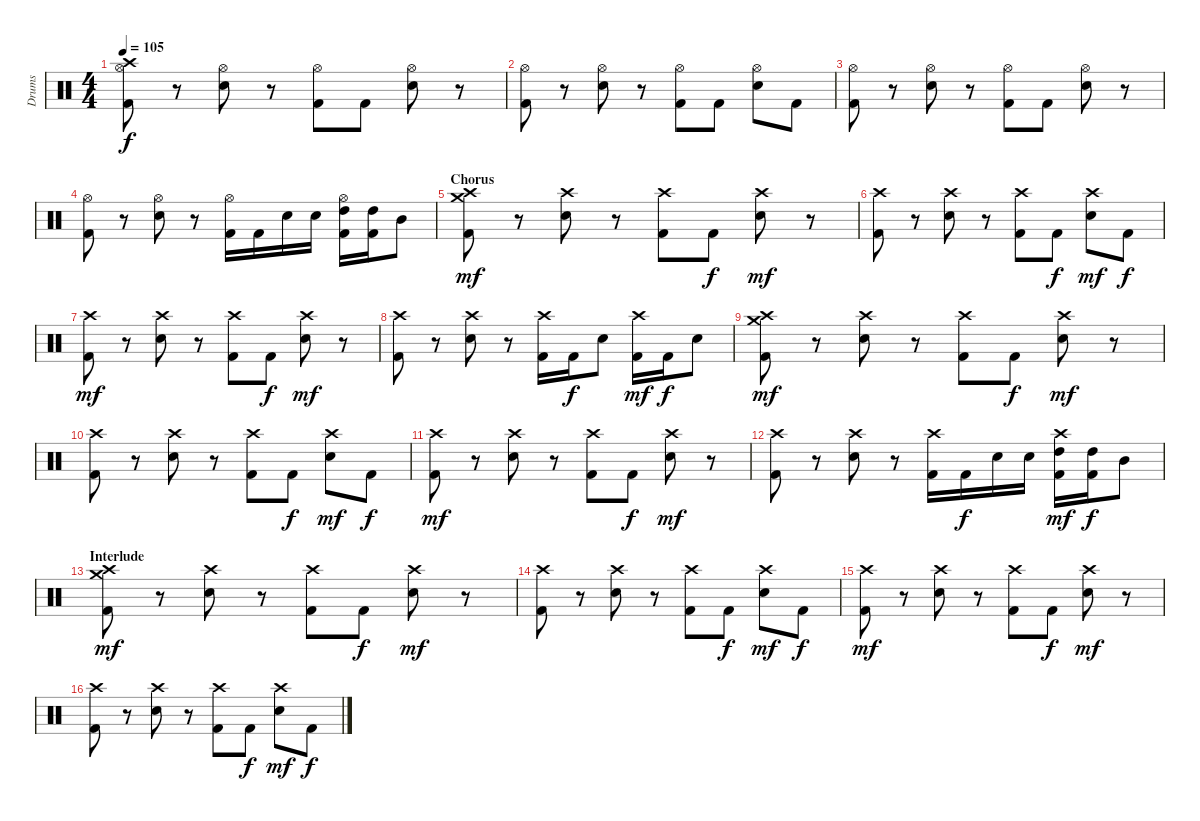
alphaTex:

\track ("Drums" "Drums") {instrument percussion}
\staff {score}
\articulation defaults
\ts (4 4)
\tempo 105
\clef neutral
\ks c
("Crash high (hit)" "Hi-Hat (open)" "Kick (hit) 2").8{dy f} r.8 ("Hi-Hat (open)" "Electric Snare (hit)").8 r.8 ("Hi-Hat (open)" "Kick (hit) 2").8 "Kick (hit) 2".8 ("Hi-Hat (open)" "Electric Snare (hit)").8 r.8 |
("Hi-Hat (open)" "Kick (hit) 2").8 r.8 ("Hi-Hat (open)" "Electric Snare (hit)").8 r.8 ("Hi-Hat (open)" "Kick (hit) 2").8 "Kick (hit) 2".8 ("Hi-Hat (open)" "Electric Snare (hit)").8 "Kick (hit) 2".8 |
("Hi-Hat (open)" "Kick (hit) 2").8 r.8 ("Hi-Hat (open)" "Electric Snare (hit)").8 r.8 ("Hi-Hat (open)" "Kick (hit) 2").8 "Kick (hit) 2".8 ("Hi-Hat (open)" "Electric Snare (hit)").8 r.8 |
("Hi-Hat (open)" "Kick (hit) 2").8 r.8 ("Hi-Hat (open)" "Electric Snare (hit)").8 r.8 ("Hi-Hat (open)" "Kick (hit) 2").16 "Kick (hit) 2".16 "Electric Snare (hit)".16 "Electric Snare (hit)".16 ("Hi-Hat (open)" "High Tom (hit)" "Kick (hit) 2").16 ("High Tom (hit)" "Kick (hit) 2").16 "Mid Tom (hit)".8 |
\section ("" "Chorus")
("Crash medium (hit)" "Crash high (hit)" "Kick (hit) 2").8{dy mf} r.8 ("Crash high (hit)" "Electric Snare (hit)").8 r.8 ("Crash high (hit)" "Kick (hit) 2").8 "Kick (hit) 2".8{dy f} ("Crash high (hit)" "Electric Snare (hit)").8{dy mf} r.8 |
("Crash high (hit)" "Kick (hit) 2").8 r.8 ("Crash high (hit)" "Electric Snare (hit)").8 r.8 ("Crash high (hit)" "Kick (hit) 2").8 "Kick (hit) 2".8{dy f} ("Crash high (hit)" "Electric Snare (hit)").8{dy mf} "Kick (hit) 2".8{dy f} |
("Crash high (hit)" "Kick (hit) 2").8{dy mf} r.8 ("Crash high (hit)" "Electric Snare (hit)").8 r.8 ("Crash high (hit)" "Kick (hit) 2").8 "Kick (hit) 2".8{dy f} ("Crash high (hit)" "Electric Snare (hit)").8{dy mf} r.8 |
("Crash high (hit)" "Kick (hit) 2").8 r.8 ("Crash high (hit)" "Electric Snare (hit)").8 r.8 ("Crash high (hit)" "Kick (hit) 2").16 "Kick (hit) 2".16{dy f} "Electric Snare (hit)".8 ("Crash high (hit)" "Kick (hit) 2").16{dy mf} "Kick (hit) 2".16{dy f} "Electric Snare (hit)".8 |
("Crash medium (hit)" "Crash high (hit)" "Kick (hit) 2").8{dy mf} r.8 ("Crash high (hit)" "Electric Snare (hit)").8 r.8 ("Crash high (hit)" "Kick (hit) 2").8 "Kick (hit) 2".8{dy f} ("Crash high (hit)" "Electric Snare (hit)").8{dy mf} r.8 |
("Crash high (hit)" "Kick (hit) 2").8 r.8 ("Crash high (hit)" "Electric Snare (hit)").8 r.8 ("Crash high (hit)" "Kick (hit) 2").8 "Kick (hit) 2".8{dy f} ("Crash high (hit)" "Electric Snare (hit)").8{dy mf} "Kick (hit) 2".8{dy f} |
("Crash high (hit)" "Kick (hit) 2").8{dy mf} r.8 ("Crash high (hit)" "Electric Snare (hit)").8 r.8 ("Crash high (hit)" "Kick (hit) 2").8 "Kick (hit) 2".8{dy f} ("Crash high (hit)" "Electric Snare (hit)").8{dy mf} r.8 |
("Crash high (hit)" "Kick (hit) 2").8 r.8 ("Crash high (hit)" "Electric Snare (hit)").8 r.8 ("Crash high (hit)" "Kick (hit) 2").16 "Kick (hit) 2".16{dy f} "Electric Snare (hit)".16 "Electric Snare (hit)".16 ("Crash high (hit)" "High Tom (hit)" "Kick (hit) 2").16{dy mf} ("High Tom (hit)" "Kick (hit) 2").16{dy f} "Mid Tom (hit)".8 |
\section ("" "Interlude")
("Crash medium (hit)" "Crash high (hit)" "Kick (hit) 2").8{dy mf} r.8 ("Crash high (hit)" "Electric Snare (hit)").8 r.8 ("Crash high (hit)" "Kick (hit) 2").8 "Kick (hit) 2".8{dy f} ("Crash high (hit)" "Electric Snare (hit)").8{dy mf} r.8 |
("Crash high (hit)" "Kick (hit) 2").8 r.8 ("Crash high (hit)" "Electric Snare (hit)").8 r.8 ("Crash high (hit)" "Kick (hit) 2").8 "Kick (hit) 2".8{dy f} ("Crash high (hit)" "Electric Snare (hit)").8{dy mf} "Kick (hit) 2".8{dy f} |
("Crash high (hit)" "Kick (hit) 2").8{dy mf} r.8 ("Crash high (hit)" "Electric Snare (hit)").8 r.8 ("Crash high (hit)" "Kick (hit) 2").8 "Kick (hit) 2".8{dy f} ("Crash high (hit)" "Electric Snare (hit)").8{dy mf} r.8 |
("Crash high (hit)" "Kick (hit) 2").8 r.8 ("Crash high (hit)" "Electric Snare (hit)").8 r.8 ("Crash high (hit)" "Kick (hit) 2").8 "Kick (hit) 2".8{dy f} ("Crash high (hit)" "Electric Snare (hit)").8{dy mf} "Kick (hit) 2".8{dy f}
